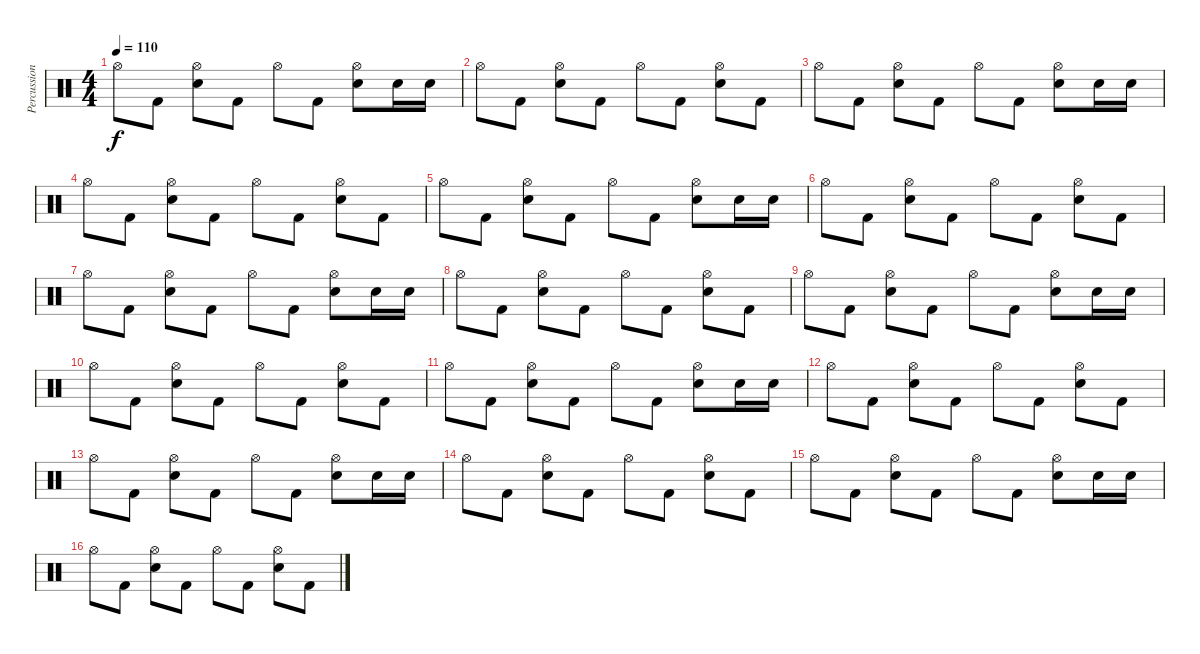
\track ("Percussion" "Percussion") {instrument percussion}
\staff {score}
\articulation defaults
\ts (4 4)
\tempo 110
\clef neutral
\ks c "Hi-Hat (open)".8{dy f} "Kick (hit) 2".8
("Electric Snare (hit)" "Hi-Hat (open)").8 "Kick (hit) 2".8 "Hi-Hat (open)".8 "Kick (hit) 2".8 ("Electric Snare (hit)" "Hi-Hat (open)").8 "Electric Snare (hit)".16 "Electric Snare (hit)".16 |
"Hi-Hat (open)".8 "Kick (hit) 2".8 ("Electric Snare (hit)" "Hi-Hat (open)").8 "Kick (hit) 2".8 "Hi-Hat (open)".8 "Kick (hit) 2".8 ("Electric Snare (hit)" "Hi-Hat (open)").8 "Kick (hit) 2".8 |
"Hi-Hat (open)".8 "Kick (hit) 2".8 ("Electric Snare (hit)" "Hi-Hat (open)").8 "Kick (hit) 2".8 "Hi-Hat (open)".8 "Kick (hit) 2".8 ("Electric Snare (hit)" "Hi-Hat (open)").8 "Electric Snare (hit)".16 "Electric Snare (hit)".16 |
"Hi-Hat (open)".8 "Kick (hit) 2".8 ("Electric Snare (hit)" "Hi-Hat (open)").8 "Kick (hit) 2".8 "Hi-Hat (open)".8 "Kick (hit) 2".8 ("Electric Snare (hit)" "Hi-Hat (open)").8 "Kick (hit) 2".8 |
"Hi-Hat (open)".8 "Kick (hit) 2".8 ("Electric Snare (hit)" "Hi-Hat (open)").8 "Kick (hit) 2".8 "Hi-Hat (open)".8 "Kick (hit) 2".8 ("Electric Snare (hit)" "Hi-Hat (open)").8 "Electric Snare (hit)".16 "Electric Snare (hit)".16 |
"Hi-Hat (open)".8 "Kick (hit) 2".8 ("Electric Snare (hit)" "Hi-Hat (open)").8 "Kick (hit) 2".8 "Hi-Hat (open)".8 "Kick (hit) 2".8 ("Electric Snare (hit)" "Hi-Hat (open)").8 "Kick (hit) 2".8 |
"Hi-Hat (open)".8 "Kick (hit) 2".8 ("Electric Snare (hit)" "Hi-Hat (open)").8 "Kick (hit) 2".8 "Hi-Hat (open)".8 "Kick (hit) 2".8 ("Electric Snare (hit)" "Hi-Hat (open)").8 "Electric Snare (hit)".16 "Electric Snare (hit)".16 |
"Hi-Hat (open)".8 "Kick (hit) 2".8 ("Electric Snare (hit)" "Hi-Hat (open)").8 "Kick (hit) 2".8 "Hi-Hat (open)".8 "Kick (hit) 2".8 ("Electric Snare (hit)" "Hi-Hat (open)").8 "Kick (hit) 2".8 |
"Hi-Hat (open)".8 "Kick (hit) 2".8 ("Electric Snare (hit)" "Hi-Hat (open)").8 "Kick (hit) 2".8 "Hi-Hat (open)".8 "Kick (hit) 2".8 ("Electric Snare (hit)" "Hi-Hat (open)").8 "Electric Snare (hit)".16 "Electric Snare (hit)".16 |
"Hi-Hat (open)".8 "Kick (hit) 2".8 ("Electric Snare (hit)" "Hi-Hat (open)").8 "Kick (hit) 2".8 "Hi-Hat (open)".8 "Kick (hit) 2".8 ("Electric Snare (hit)" "Hi-Hat (open)").8 "Kick (hit) 2".8 |
"Hi-Hat (open)".8 "Kick (hit) 2".8 ("Electric Snare (hit)" "Hi-Hat (open)").8 "Kick (hit) 2".8 "Hi-Hat (open)".8 "Kick (hit) 2".8 ("Electric Snare (hit)" "Hi-Hat (open)").8 "Electric Snare (hit)".16 "Electric Snare (hit)".16 |
"Hi-Hat (open)".8 "Kick (hit) 2".8 ("Electric Snare (hit)" "Hi-Hat (open)").8 "Kick (hit) 2".8 "Hi-Hat (open)".8 "Kick (hit) 2".8 ("Electric Snare (hit)" "Hi-Hat (open)").8 "Kick (hit) 2".8 |
"Hi-Hat (open)".8 "Kick (hit) 2".8 ("Electric Snare (hit)" "Hi-Hat (open)").8 "Kick (hit) 2".8 "Hi-Hat (open)".8 "Kick (hit) 2".8 ("Electric Snare (hit)" "Hi-Hat (open)").8 "Electric Snare (hit)".16 "Electric Snare (hit)".16 |
"Hi-Hat (open)".8 "Kick (hit) 2".8 ("Electric Snare (hit)" "Hi-Hat (open)").8 "Kick (hit) 2".8 "Hi-Hat (open)".8 "Kick (hit) 2".8 ("Electric Snare (hit)" "Hi-Hat (open)").8 "Kick (hit) 2".8 |
"Hi-Hat (open)".8 "Kick (hit) 2".8 ("Electric Snare (hit)" "Hi-Hat (open)").8 "Kick (hit) 2".8 "Hi-Hat (open)".8 "Kick (hit) 2".8 ("Electric Snare (hit)" "Hi-Hat (open)").8 "Electric Snare (hit)".16 "Electric Snare (hit)".16 |
"Hi-Hat (open)".8 "Kick (hit) 2".8 ("Electric Snare (hit)" "Hi-Hat (open)").8 "Kick (hit) 2".8 "Hi-Hat (open)".8 "Kick (hit) 2".8 ("Electric Snare (hit)" "Hi-Hat (open)").8 "Kick (hit) 2".8
